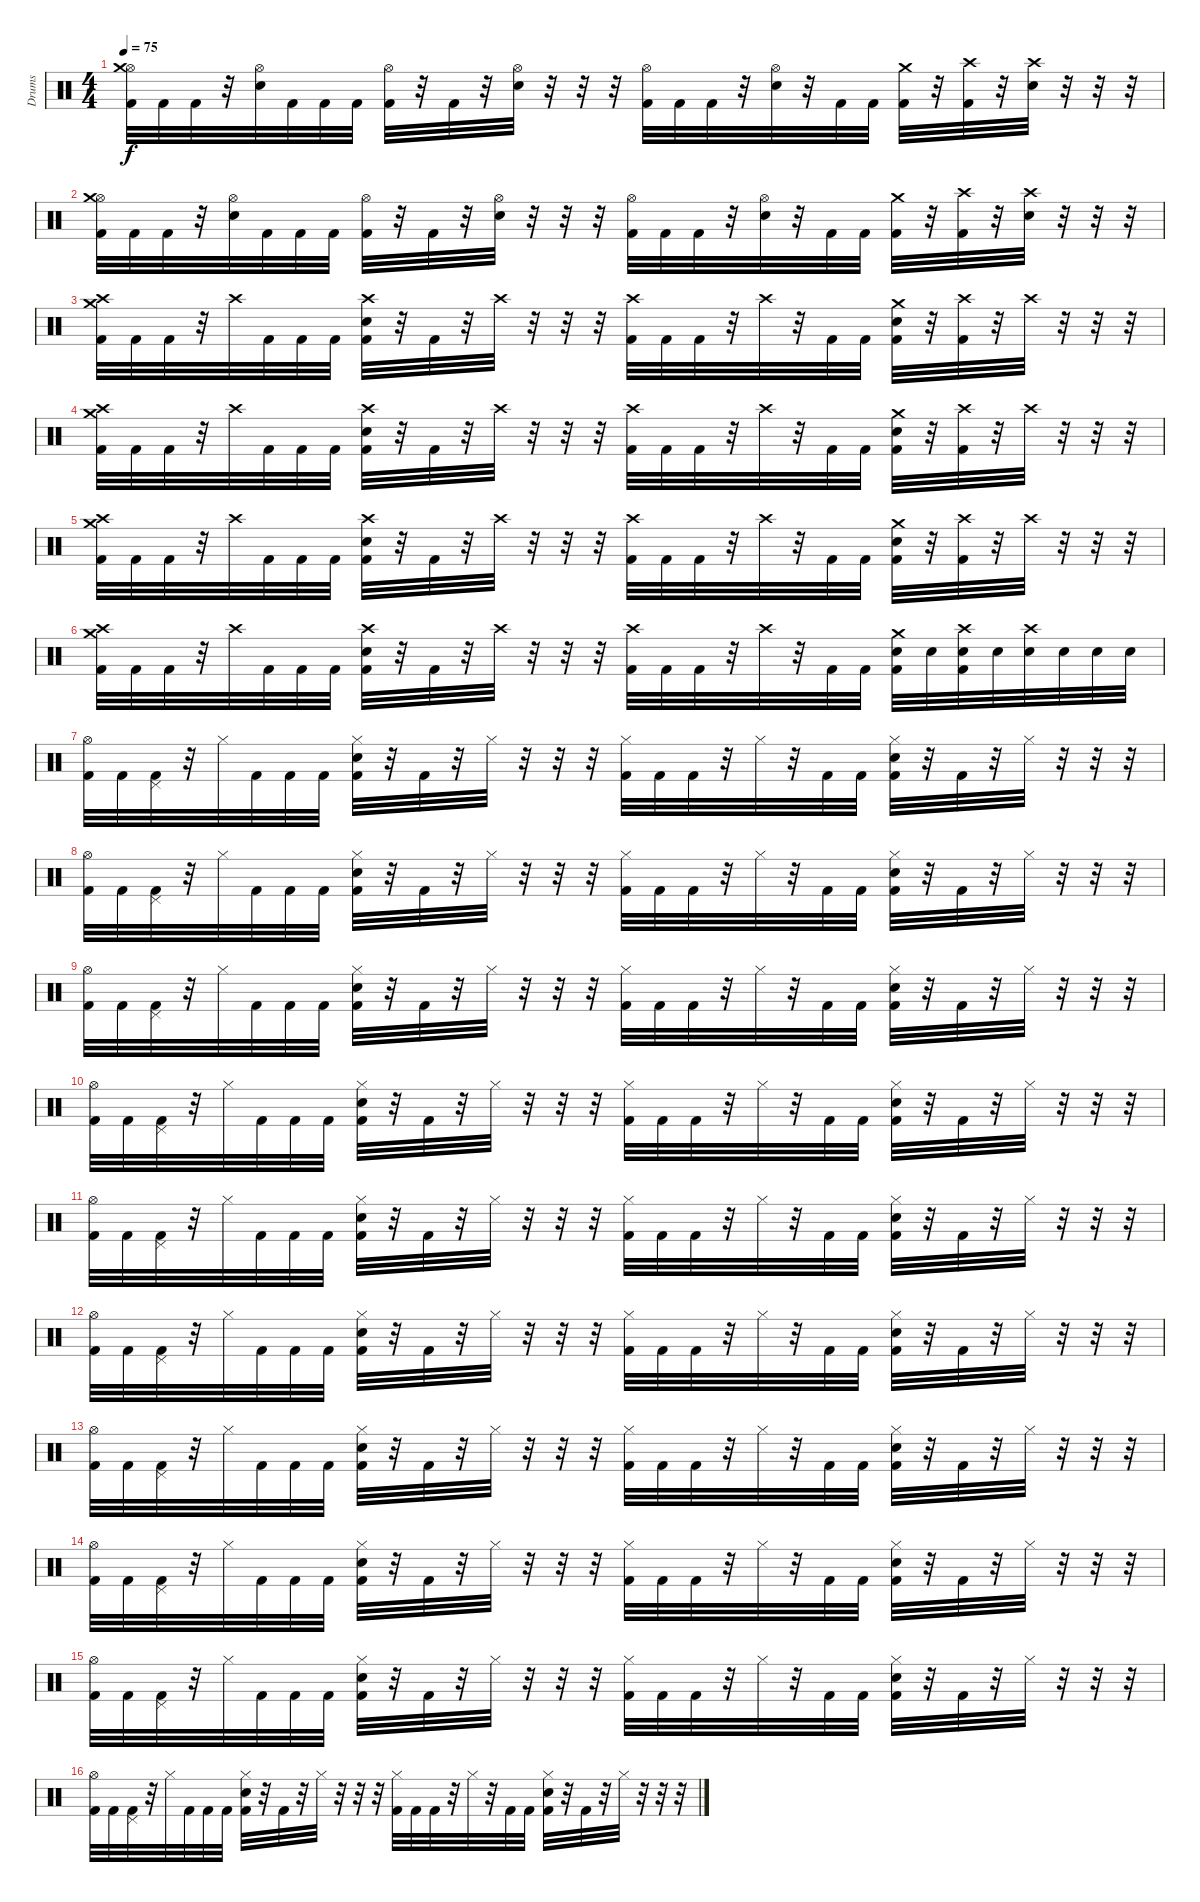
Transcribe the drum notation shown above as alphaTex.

\track ("Drums" "Drums") {instrument percussion}
\staff {score}
\articulation defaults
\ts (4 4)
\tempo 75
\clef neutral
\ks c
("Hi-Hat (open)" "Crash medium (hit)" "Kick (hit) 2").32{dy f} "Kick (hit) 2".32 "Kick (hit) 2".32 r.32 ("Hi-Hat (open)" "Electric Snare (hit)").32 "Kick (hit) 2".32 "Kick (hit) 2".32 "Kick (hit) 2".32 ("Hi-Hat (open)" "Kick (hit) 2").32 r.32 "Kick (hit) 2".32 r.32 ("Hi-Hat (open)" "Electric Snare (hit)").32 r.32 r.32 r.32 ("Hi-Hat (open)" "Kick (hit) 2").32 "Kick (hit) 2".32 "Kick (hit) 2".32 r.32 ("Hi-Hat (open)" "Electric Snare (hit)").32 r.32 "Kick (hit) 2".32 "Kick (hit) 2".32 ("Crash medium (hit)" "Kick (hit) 2").32 r.32 ("Crash high (hit)" "Kick (hit) 2").32 r.32 ("Crash high (hit)" "Electric Snare (hit)").32 r.32 r.32 r.32 |
("Hi-Hat (open)" "Crash medium (hit)" "Kick (hit) 2").32 "Kick (hit) 2".32 "Kick (hit) 2".32 r.32 ("Hi-Hat (open)" "Electric Snare (hit)").32 "Kick (hit) 2".32 "Kick (hit) 2".32 "Kick (hit) 2".32 ("Hi-Hat (open)" "Kick (hit) 2").32 r.32 "Kick (hit) 2".32 r.32 ("Hi-Hat (open)" "Electric Snare (hit)").32 r.32 r.32 r.32 ("Hi-Hat (open)" "Kick (hit) 2").32 "Kick (hit) 2".32 "Kick (hit) 2".32 r.32 ("Hi-Hat (open)" "Electric Snare (hit)").32 r.32 "Kick (hit) 2".32 "Kick (hit) 2".32 ("Crash medium (hit)" "Kick (hit) 2").32 r.32 ("Crash high (hit)" "Kick (hit) 2").32 r.32 ("Crash high (hit)" "Electric Snare (hit)").32 r.32 r.32 r.32 |
("Crash high (hit)" "Crash medium (hit)" "Kick (hit) 2").32 "Kick (hit) 2".32 "Kick (hit) 2".32 r.32 "Crash high (hit)".32 "Kick (hit) 2".32 "Kick (hit) 2".32 "Kick (hit) 2".32 ("Crash high (hit)" "Electric Snare (hit)" "Kick (hit) 2").32 r.32 "Kick (hit) 2".32 r.32 "Crash high (hit)".32 r.32 r.32 r.32 ("Crash high (hit)" "Kick (hit) 2").32 "Kick (hit) 2".32 "Kick (hit) 2".32 r.32 "Crash high (hit)".32 r.32 "Kick (hit) 2".32 "Kick (hit) 2".32 ("Crash medium (hit)" "Electric Snare (hit)" "Kick (hit) 2").32 r.32 ("Crash high (hit)" "Kick (hit) 2").32 r.32 "Crash high (hit)".32 r.32 r.32 r.32 |
("Crash high (hit)" "Crash medium (hit)" "Kick (hit) 2").32 "Kick (hit) 2".32 "Kick (hit) 2".32 r.32 "Crash high (hit)".32 "Kick (hit) 2".32 "Kick (hit) 2".32 "Kick (hit) 2".32 ("Crash high (hit)" "Electric Snare (hit)" "Kick (hit) 2").32 r.32 "Kick (hit) 2".32 r.32 "Crash high (hit)".32 r.32 r.32 r.32 ("Crash high (hit)" "Kick (hit) 2").32 "Kick (hit) 2".32 "Kick (hit) 2".32 r.32 "Crash high (hit)".32 r.32 "Kick (hit) 2".32 "Kick (hit) 2".32 ("Crash medium (hit)" "Electric Snare (hit)" "Kick (hit) 2").32 r.32 ("Crash high (hit)" "Kick (hit) 2").32 r.32 "Crash high (hit)".32 r.32 r.32 r.32 |
("Crash high (hit)" "Crash medium (hit)" "Kick (hit) 2").32 "Kick (hit) 2".32 "Kick (hit) 2".32 r.32 "Crash high (hit)".32 "Kick (hit) 2".32 "Kick (hit) 2".32 "Kick (hit) 2".32 ("Crash high (hit)" "Electric Snare (hit)" "Kick (hit) 2").32 r.32 "Kick (hit) 2".32 r.32 "Crash high (hit)".32 r.32 r.32 r.32 ("Crash high (hit)" "Kick (hit) 2").32 "Kick (hit) 2".32 "Kick (hit) 2".32 r.32 "Crash high (hit)".32 r.32 "Kick (hit) 2".32 "Kick (hit) 2".32 ("Crash medium (hit)" "Electric Snare (hit)" "Kick (hit) 2").32 r.32 ("Crash high (hit)" "Kick (hit) 2").32 r.32 "Crash high (hit)".32 r.32 r.32 r.32 |
("Crash high (hit)" "Crash medium (hit)" "Kick (hit) 2").32 "Kick (hit) 2".32 "Kick (hit) 2".32 r.32 "Crash high (hit)".32 "Kick (hit) 2".32 "Kick (hit) 2".32 "Kick (hit) 2".32 ("Crash high (hit)" "Electric Snare (hit)" "Kick (hit) 2").32 r.32 "Kick (hit) 2".32 r.32 "Crash high (hit)".32 r.32 r.32 r.32 ("Crash high (hit)" "Kick (hit) 2").32 "Kick (hit) 2".32 "Kick (hit) 2".32 r.32 "Crash high (hit)".32 r.32 "Kick (hit) 2".32 "Kick (hit) 2".32 ("Crash medium (hit)" "Electric Snare (hit)" "Kick (hit) 2").32 "Electric Snare (hit)".32 ("Crash high (hit)" "Electric Snare (hit)" "Kick (hit) 2").32 "Electric Snare (hit)".32 ("Crash high (hit)" "Electric Snare (hit)").32 "Electric Snare (hit)".32 "Electric Snare (hit)".32 "Electric Snare (hit)".32 |
("Hi-Hat (open)" "Kick (hit) 2").32 "Kick (hit) 2".32 ("Pedal Hi-Hat (hit)" "Kick (hit) 2").32 r.32 "Hi-Hat (closed)".32 "Kick (hit) 2".32 "Kick (hit) 2".32 "Kick (hit) 2".32 ("Hi-Hat (closed)" "Electric Snare (hit)" "Kick (hit) 2").32 r.32 "Kick (hit) 2".32 r.32 "Hi-Hat (closed)".32 r.32 r.32 r.32 ("Hi-Hat (closed)" "Kick (hit) 2").32 "Kick (hit) 2".32 "Kick (hit) 2".32 r.32 "Hi-Hat (closed)".32 r.32 "Kick (hit) 2".32 "Kick (hit) 2".32 ("Hi-Hat (closed)" "Electric Snare (hit)" "Kick (hit) 2").32 r.32 "Kick (hit) 2".32 r.32 "Hi-Hat (closed)".32 r.32 r.32 r.32 |
("Hi-Hat (open)" "Kick (hit) 2").32 "Kick (hit) 2".32 ("Pedal Hi-Hat (hit)" "Kick (hit) 2").32 r.32 "Hi-Hat (closed)".32 "Kick (hit) 2".32 "Kick (hit) 2".32 "Kick (hit) 2".32 ("Hi-Hat (closed)" "Electric Snare (hit)" "Kick (hit) 2").32 r.32 "Kick (hit) 2".32 r.32 "Hi-Hat (closed)".32 r.32 r.32 r.32 ("Hi-Hat (closed)" "Kick (hit) 2").32 "Kick (hit) 2".32 "Kick (hit) 2".32 r.32 "Hi-Hat (closed)".32 r.32 "Kick (hit) 2".32 "Kick (hit) 2".32 ("Hi-Hat (closed)" "Electric Snare (hit)" "Kick (hit) 2").32 r.32 "Kick (hit) 2".32 r.32 "Hi-Hat (closed)".32 r.32 r.32 r.32 |
("Hi-Hat (open)" "Kick (hit) 2").32 "Kick (hit) 2".32 ("Pedal Hi-Hat (hit)" "Kick (hit) 2").32 r.32 "Hi-Hat (closed)".32 "Kick (hit) 2".32 "Kick (hit) 2".32 "Kick (hit) 2".32 ("Hi-Hat (closed)" "Electric Snare (hit)" "Kick (hit) 2").32 r.32 "Kick (hit) 2".32 r.32 "Hi-Hat (closed)".32 r.32 r.32 r.32 ("Hi-Hat (closed)" "Kick (hit) 2").32 "Kick (hit) 2".32 "Kick (hit) 2".32 r.32 "Hi-Hat (closed)".32 r.32 "Kick (hit) 2".32 "Kick (hit) 2".32 ("Hi-Hat (closed)" "Electric Snare (hit)" "Kick (hit) 2").32 r.32 "Kick (hit) 2".32 r.32 "Hi-Hat (closed)".32 r.32 r.32 r.32 |
("Hi-Hat (open)" "Kick (hit) 2").32 "Kick (hit) 2".32 ("Pedal Hi-Hat (hit)" "Kick (hit) 2").32 r.32 "Hi-Hat (closed)".32 "Kick (hit) 2".32 "Kick (hit) 2".32 "Kick (hit) 2".32 ("Hi-Hat (closed)" "Electric Snare (hit)" "Kick (hit) 2").32 r.32 "Kick (hit) 2".32 r.32 "Hi-Hat (closed)".32 r.32 r.32 r.32 ("Hi-Hat (closed)" "Kick (hit) 2").32 "Kick (hit) 2".32 "Kick (hit) 2".32 r.32 "Hi-Hat (closed)".32 r.32 "Kick (hit) 2".32 "Kick (hit) 2".32 ("Hi-Hat (closed)" "Electric Snare (hit)" "Kick (hit) 2").32 r.32 "Kick (hit) 2".32 r.32 "Hi-Hat (closed)".32 r.32 r.32 r.32 |
("Hi-Hat (open)" "Kick (hit) 2").32 "Kick (hit) 2".32 ("Pedal Hi-Hat (hit)" "Kick (hit) 2").32 r.32 "Hi-Hat (closed)".32 "Kick (hit) 2".32 "Kick (hit) 2".32 "Kick (hit) 2".32 ("Hi-Hat (closed)" "Electric Snare (hit)" "Kick (hit) 2").32 r.32 "Kick (hit) 2".32 r.32 "Hi-Hat (closed)".32 r.32 r.32 r.32 ("Hi-Hat (closed)" "Kick (hit) 2").32 "Kick (hit) 2".32 "Kick (hit) 2".32 r.32 "Hi-Hat (closed)".32 r.32 "Kick (hit) 2".32 "Kick (hit) 2".32 ("Hi-Hat (closed)" "Electric Snare (hit)" "Kick (hit) 2").32 r.32 "Kick (hit) 2".32 r.32 "Hi-Hat (closed)".32 r.32 r.32 r.32 |
("Hi-Hat (open)" "Kick (hit) 2").32 "Kick (hit) 2".32 ("Pedal Hi-Hat (hit)" "Kick (hit) 2").32 r.32 "Hi-Hat (closed)".32 "Kick (hit) 2".32 "Kick (hit) 2".32 "Kick (hit) 2".32 ("Hi-Hat (closed)" "Electric Snare (hit)" "Kick (hit) 2").32 r.32 "Kick (hit) 2".32 r.32 "Hi-Hat (closed)".32 r.32 r.32 r.32 ("Hi-Hat (closed)" "Kick (hit) 2").32 "Kick (hit) 2".32 "Kick (hit) 2".32 r.32 "Hi-Hat (closed)".32 r.32 "Kick (hit) 2".32 "Kick (hit) 2".32 ("Hi-Hat (closed)" "Electric Snare (hit)" "Kick (hit) 2").32 r.32 "Kick (hit) 2".32 r.32 "Hi-Hat (closed)".32 r.32 r.32 r.32 |
("Hi-Hat (open)" "Kick (hit) 2").32 "Kick (hit) 2".32 ("Pedal Hi-Hat (hit)" "Kick (hit) 2").32 r.32 "Hi-Hat (closed)".32 "Kick (hit) 2".32 "Kick (hit) 2".32 "Kick (hit) 2".32 ("Hi-Hat (closed)" "Electric Snare (hit)" "Kick (hit) 2").32 r.32 "Kick (hit) 2".32 r.32 "Hi-Hat (closed)".32 r.32 r.32 r.32 ("Hi-Hat (closed)" "Kick (hit) 2").32 "Kick (hit) 2".32 "Kick (hit) 2".32 r.32 "Hi-Hat (closed)".32 r.32 "Kick (hit) 2".32 "Kick (hit) 2".32 ("Hi-Hat (closed)" "Electric Snare (hit)" "Kick (hit) 2").32 r.32 "Kick (hit) 2".32 r.32 "Hi-Hat (closed)".32 r.32 r.32 r.32 |
("Hi-Hat (open)" "Kick (hit) 2").32 "Kick (hit) 2".32 ("Pedal Hi-Hat (hit)" "Kick (hit) 2").32 r.32 "Hi-Hat (closed)".32 "Kick (hit) 2".32 "Kick (hit) 2".32 "Kick (hit) 2".32 ("Hi-Hat (closed)" "Electric Snare (hit)" "Kick (hit) 2").32 r.32 "Kick (hit) 2".32 r.32 "Hi-Hat (closed)".32 r.32 r.32 r.32 ("Hi-Hat (closed)" "Kick (hit) 2").32 "Kick (hit) 2".32 "Kick (hit) 2".32 r.32 "Hi-Hat (closed)".32 r.32 "Kick (hit) 2".32 "Kick (hit) 2".32 ("Hi-Hat (closed)" "Electric Snare (hit)" "Kick (hit) 2").32 r.32 "Kick (hit) 2".32 r.32 "Hi-Hat (closed)".32 r.32 r.32 r.32 |
("Hi-Hat (open)" "Kick (hit) 2").32 "Kick (hit) 2".32 ("Pedal Hi-Hat (hit)" "Kick (hit) 2").32 r.32 "Hi-Hat (closed)".32 "Kick (hit) 2".32 "Kick (hit) 2".32 "Kick (hit) 2".32 ("Hi-Hat (closed)" "Electric Snare (hit)" "Kick (hit) 2").32 r.32 "Kick (hit) 2".32 r.32 "Hi-Hat (closed)".32 r.32 r.32 r.32 ("Hi-Hat (closed)" "Kick (hit) 2").32 "Kick (hit) 2".32 "Kick (hit) 2".32 r.32 "Hi-Hat (closed)".32 r.32 "Kick (hit) 2".32 "Kick (hit) 2".32 ("Hi-Hat (closed)" "Electric Snare (hit)" "Kick (hit) 2").32 r.32 "Kick (hit) 2".32 r.32 "Hi-Hat (closed)".32 r.32 r.32 r.32 |
("Hi-Hat (open)" "Kick (hit) 2").32 "Kick (hit) 2".32 ("Pedal Hi-Hat (hit)" "Kick (hit) 2").32 r.32 "Hi-Hat (closed)".32 "Kick (hit) 2".32 "Kick (hit) 2".32 "Kick (hit) 2".32 ("Hi-Hat (closed)" "Electric Snare (hit)" "Kick (hit) 2").32 r.32 "Kick (hit) 2".32 r.32 "Hi-Hat (closed)".32 r.32 r.32 r.32 ("Hi-Hat (closed)" "Kick (hit) 2").32 "Kick (hit) 2".32 "Kick (hit) 2".32 r.32 "Hi-Hat (closed)".32 r.32 "Kick (hit) 2".32 "Kick (hit) 2".32 ("Hi-Hat (closed)" "Electric Snare (hit)" "Kick (hit) 2").32 r.32 "Kick (hit) 2".32 r.32 "Hi-Hat (closed)".32 r.32 r.32 r.32
